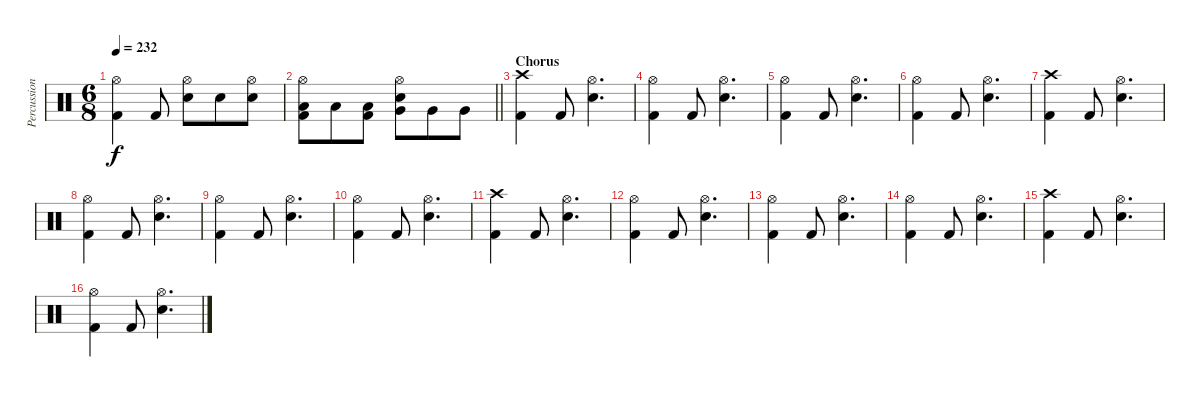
\track ("Percussion" "Percussion") {instrument percussion}
\staff {score}
\articulation defaults
\ts (6 8)
\tempo 232
\clef neutral
\ks c
("Hi-Hat (open)" "Kick (hit) 2").4{dy f} "Kick (hit) 2".8 ("Hi-Hat (open)" "Electric Snare (hit)").8 "Electric Snare (hit)".8 ("Hi-Hat (open)" "Electric Snare (hit)").8 |
\barLineRight lightlight
("Hi-Hat (open)" "Low Tom (hit)" "Kick (hit) 2").8 "Low Tom (hit)".8 ("Low Tom (hit)" "Kick (hit) 2").8 ("Hi-Hat (open)" "Electric Snare (hit)" "Very Low Tom (hit)").8 "Very Low Tom (hit)".8 "Very Low Tom (hit)".8 |
\section ("" "Chorus")
("Crash high (hit)" "Kick (hit) 2").4 "Kick (hit) 2".8 ("Hi-Hat (open)" "Electric Snare (hit)").4{d} |
("Hi-Hat (open)" "Kick (hit) 2").4 "Kick (hit) 2".8 ("Hi-Hat (open)" "Electric Snare (hit)").4{d} |
("Hi-Hat (open)" "Kick (hit) 2").4 "Kick (hit) 2".8 ("Hi-Hat (open)" "Electric Snare (hit)").4{d} |
("Hi-Hat (open)" "Kick (hit) 2").4 "Kick (hit) 2".8 ("Hi-Hat (open)" "Electric Snare (hit)").4{d} |
("Crash high (hit)" "Kick (hit) 2").4 "Kick (hit) 2".8 ("Hi-Hat (open)" "Electric Snare (hit)").4{d} |
("Hi-Hat (open)" "Kick (hit) 2").4 "Kick (hit) 2".8 ("Hi-Hat (open)" "Electric Snare (hit)").4{d} |
("Hi-Hat (open)" "Kick (hit) 2").4 "Kick (hit) 2".8 ("Hi-Hat (open)" "Electric Snare (hit)").4{d} |
("Hi-Hat (open)" "Kick (hit) 2").4 "Kick (hit) 2".8 ("Hi-Hat (open)" "Electric Snare (hit)").4{d} |
("Crash high (hit)" "Kick (hit) 2").4 "Kick (hit) 2".8 ("Hi-Hat (open)" "Electric Snare (hit)").4{d} |
("Hi-Hat (open)" "Kick (hit) 2").4 "Kick (hit) 2".8 ("Hi-Hat (open)" "Electric Snare (hit)").4{d} |
("Hi-Hat (open)" "Kick (hit) 2").4 "Kick (hit) 2".8 ("Hi-Hat (open)" "Electric Snare (hit)").4{d} |
("Hi-Hat (open)" "Kick (hit) 2").4 "Kick (hit) 2".8 ("Hi-Hat (open)" "Electric Snare (hit)").4{d} |
("Crash high (hit)" "Kick (hit) 2").4 "Kick (hit) 2".8 ("Hi-Hat (open)" "Electric Snare (hit)").4{d} |
("Hi-Hat (open)" "Kick (hit) 2").4 "Kick (hit) 2".8 ("Hi-Hat (open)" "Electric Snare (hit)").4{d}
